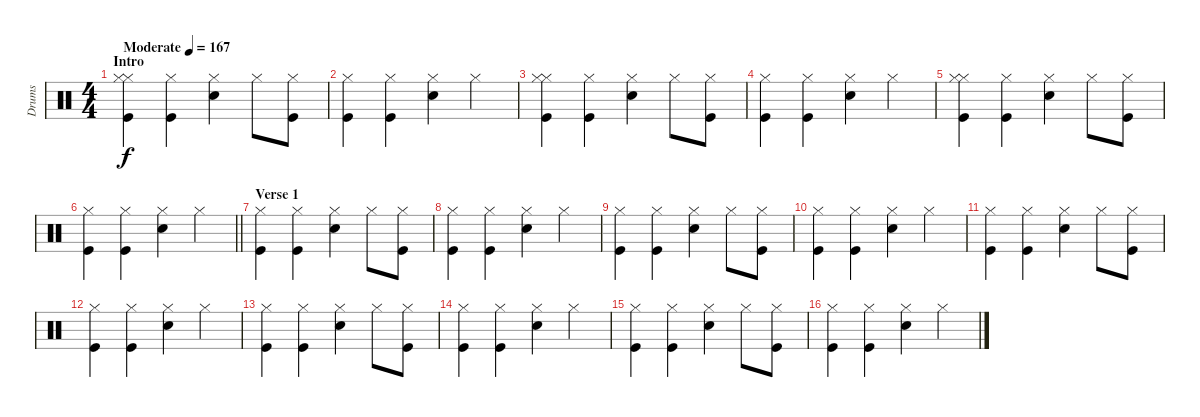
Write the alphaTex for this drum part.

\track ("Drums" "Drums") {instrument percussion}
\staff {score}
\articulation defaults
\ts (4 4)
\section ("" "Intro")
\tempo (167 "Moderate")
\clef neutral
\ks c
("Kick (hit)" "Hi-Hat (closed)" "Hi-Hat (closed)").4{dy f} ("Kick (hit)" "Hi-Hat (closed)").4 ("Electric Snare (hit)" "Hi-Hat (closed)").4 "Hi-Hat (closed)".8 ("Kick (hit)" "Hi-Hat (closed)").8 |
("Kick (hit)" "Hi-Hat (closed)").4 ("Kick (hit)" "Hi-Hat (closed)").4 ("Electric Snare (hit)" "Hi-Hat (closed)").4 "Hi-Hat (closed)".4 |
("Kick (hit)" "Hi-Hat (closed)" "Hi-Hat (closed)").4 ("Kick (hit)" "Hi-Hat (closed)").4 ("Electric Snare (hit)" "Hi-Hat (closed)").4 "Hi-Hat (closed)".8 ("Kick (hit)" "Hi-Hat (closed)").8 |
("Kick (hit)" "Hi-Hat (closed)").4 ("Kick (hit)" "Hi-Hat (closed)").4 ("Electric Snare (hit)" "Hi-Hat (closed)").4 "Hi-Hat (closed)".4 |
("Kick (hit)" "Hi-Hat (closed)" "Hi-Hat (closed)").4 ("Kick (hit)" "Hi-Hat (closed)").4 ("Electric Snare (hit)" "Hi-Hat (closed)").4 "Hi-Hat (closed)".8 ("Kick (hit)" "Hi-Hat (closed)").8 |
\barLineRight lightlight
("Kick (hit)" "Hi-Hat (closed)").4 ("Kick (hit)" "Hi-Hat (closed)").4 ("Electric Snare (hit)" "Hi-Hat (closed)").4 "Hi-Hat (closed)".4 |
\section ("" "Verse 1")
("Kick (hit)" "Hi-Hat (closed)").4 ("Kick (hit)" "Hi-Hat (closed)").4 ("Electric Snare (hit)" "Hi-Hat (closed)").4 "Hi-Hat (closed)".8 ("Kick (hit)" "Hi-Hat (closed)").8 |
("Kick (hit)" "Hi-Hat (closed)").4 ("Kick (hit)" "Hi-Hat (closed)").4 ("Electric Snare (hit)" "Hi-Hat (closed)").4 "Hi-Hat (closed)".4 |
("Kick (hit)" "Hi-Hat (closed)").4 ("Kick (hit)" "Hi-Hat (closed)").4 ("Electric Snare (hit)" "Hi-Hat (closed)").4 "Hi-Hat (closed)".8 ("Kick (hit)" "Hi-Hat (closed)").8 |
("Kick (hit)" "Hi-Hat (closed)").4 ("Kick (hit)" "Hi-Hat (closed)").4 ("Electric Snare (hit)" "Hi-Hat (closed)").4 "Hi-Hat (closed)".4 |
("Kick (hit)" "Hi-Hat (closed)").4 ("Kick (hit)" "Hi-Hat (closed)").4 ("Electric Snare (hit)" "Hi-Hat (closed)").4 "Hi-Hat (closed)".8 ("Kick (hit)" "Hi-Hat (closed)").8 |
("Kick (hit)" "Hi-Hat (closed)").4 ("Kick (hit)" "Hi-Hat (closed)").4 ("Electric Snare (hit)" "Hi-Hat (closed)").4 "Hi-Hat (closed)".4 |
("Kick (hit)" "Hi-Hat (closed)").4 ("Kick (hit)" "Hi-Hat (closed)").4 ("Electric Snare (hit)" "Hi-Hat (closed)").4 "Hi-Hat (closed)".8 ("Kick (hit)" "Hi-Hat (closed)").8 |
("Kick (hit)" "Hi-Hat (closed)").4 ("Kick (hit)" "Hi-Hat (closed)").4 ("Electric Snare (hit)" "Hi-Hat (closed)").4 "Hi-Hat (closed)".4 |
("Kick (hit)" "Hi-Hat (closed)").4 ("Kick (hit)" "Hi-Hat (closed)").4 ("Electric Snare (hit)" "Hi-Hat (closed)").4 "Hi-Hat (closed)".8 ("Kick (hit)" "Hi-Hat (closed)").8 |
("Kick (hit)" "Hi-Hat (closed)").4 ("Kick (hit)" "Hi-Hat (closed)").4 ("Electric Snare (hit)" "Hi-Hat (closed)").4 "Hi-Hat (closed)".4
